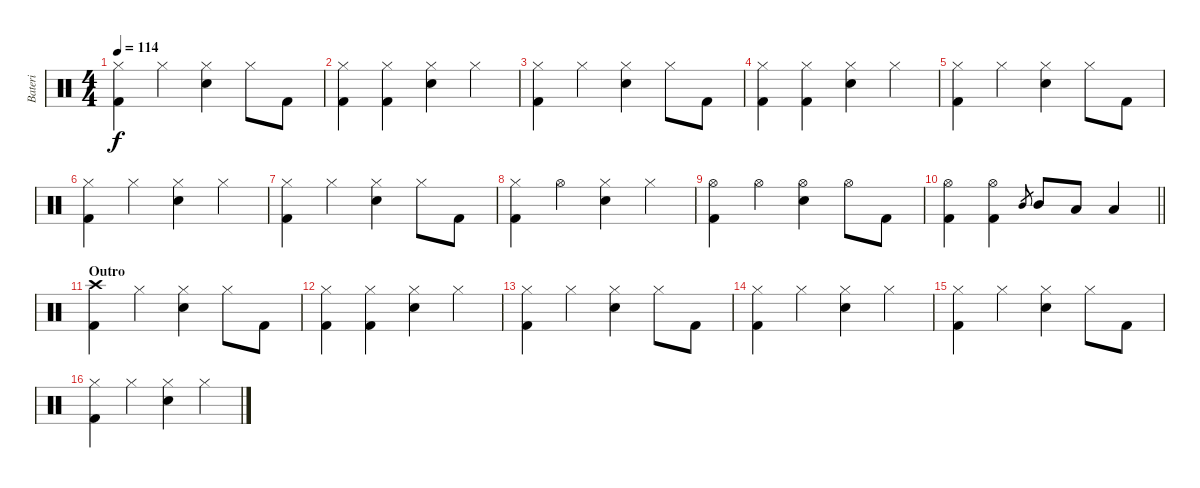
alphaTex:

\track ("Bateri" "Bateri") {instrument percussion}
\staff {score}
\articulation defaults
\ts (4 4)
\tempo 114
\clef neutral
\ks c
("Hi-Hat (closed)" "Kick (hit) 2").4{dy f} "Hi-Hat (closed)".4 ("Hi-Hat (closed)" "Snare (hit) 2").4 "Hi-Hat (closed)".8 "Kick (hit) 2".8 |
("Hi-Hat (closed)" "Kick (hit) 2").4 ("Hi-Hat (closed)" "Kick (hit) 2").4 ("Hi-Hat (closed)" "Snare (hit) 2").4 "Hi-Hat (closed)".4 |
("Hi-Hat (closed)" "Kick (hit) 2").4 "Hi-Hat (closed)".4 ("Hi-Hat (closed)" "Snare (hit) 2").4 "Hi-Hat (closed)".8 "Kick (hit) 2".8 |
("Hi-Hat (closed)" "Kick (hit) 2").4 ("Hi-Hat (closed)" "Kick (hit) 2").4 ("Hi-Hat (closed)" "Snare (hit) 2").4 "Hi-Hat (closed)".4 |
("Hi-Hat (closed)" "Kick (hit) 2").4 "Hi-Hat (closed)".4 ("Hi-Hat (closed)" "Snare (hit) 2").4 "Hi-Hat (closed)".8 "Kick (hit) 2".8 |
("Hi-Hat (closed)" "Kick (hit) 2").4 "Hi-Hat (closed)".4 ("Hi-Hat (closed)" "Snare (hit) 2").4 "Hi-Hat (closed)".4 |
("Hi-Hat (closed)" "Kick (hit) 2").4 "Hi-Hat (closed)".4 ("Hi-Hat (closed)" "Snare (hit) 2").4 "Hi-Hat (closed)".8 "Kick (hit) 2".8 |
("Hi-Hat (closed)" "Kick (hit) 2").4 "Hi-Hat (open)".4 ("Hi-Hat (closed)" "Snare (hit) 2").4 "Hi-Hat (closed)".4 |
("Hi-Hat (open)" "Kick (hit) 2").4 "Hi-Hat (open)".4 ("Hi-Hat (open)" "Snare (hit) 2").4 "Hi-Hat (open)".8 "Kick (hit) 2".8 |
\barLineRight lightlight
("Hi-Hat (open)" "Kick (hit) 2").4 ("Hi-Hat (open)" "Kick (hit) 2").4 "Mid Tom (hit)".8{gr} "Mid Tom (hit)".8 "Low Tom (hit)".8 "Low Floor Tom (hit)".4 |
\section ("" "Outro")
("Crash high (hit)" "Kick (hit) 2").4 "Hi-Hat (closed)".4 ("Hi-Hat (closed)" "Snare (hit) 2").4 "Hi-Hat (closed)".8 "Kick (hit) 2".8 |
("Hi-Hat (closed)" "Kick (hit) 2").4 ("Hi-Hat (closed)" "Kick (hit) 2").4 ("Hi-Hat (closed)" "Snare (hit) 2").4 "Hi-Hat (closed)".4 |
("Hi-Hat (closed)" "Kick (hit) 2").4 "Hi-Hat (closed)".4 ("Hi-Hat (closed)" "Snare (hit) 2").4 "Hi-Hat (closed)".8 "Kick (hit) 2".8 |
("Hi-Hat (closed)" "Kick (hit) 2").4 "Hi-Hat (closed)".4 ("Hi-Hat (closed)" "Snare (hit) 2").4 "Hi-Hat (closed)".4 |
("Hi-Hat (closed)" "Kick (hit) 2").4 "Hi-Hat (closed)".4 ("Hi-Hat (closed)" "Snare (hit) 2").4 "Hi-Hat (closed)".8 "Kick (hit) 2".8 |
("Hi-Hat (closed)" "Kick (hit) 2").4 "Hi-Hat (closed)".4 ("Hi-Hat (closed)" "Snare (hit) 2").4 "Hi-Hat (closed)".4
